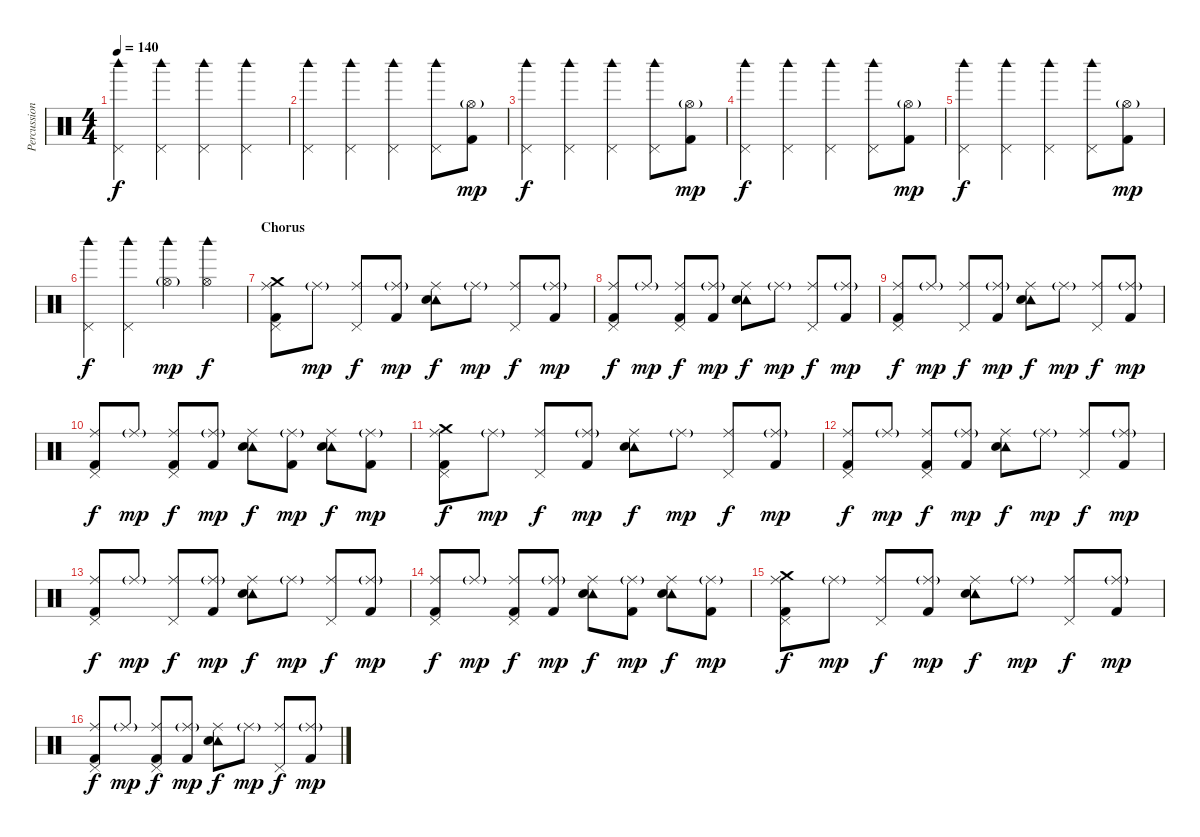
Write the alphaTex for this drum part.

\track ("Percussion" "Percussion") {instrument percussion}
\staff {score}
\articulation defaults
\ts (4 4)
\tempo 140
\clef neutral
\ks c
("Pedal Hi-Hat (hit)" "Woodblock high (hit)").4{dy f} ("Pedal Hi-Hat (hit)" "Woodblock high (hit)").4 ("Pedal Hi-Hat (hit)" "Woodblock high (hit)").4 ("Pedal Hi-Hat (hit)" "Woodblock high (hit)").4 |
("Pedal Hi-Hat (hit)" "Woodblock high (hit)").4 ("Pedal Hi-Hat (hit)" "Woodblock high (hit)").4 ("Pedal Hi-Hat (hit)" "Woodblock high (hit)").4 ("Pedal Hi-Hat (hit)" "Woodblock high (hit)").8 ("Hi-Hat (open)"{g} "Kick (hit) 2").8{dy mp} |
("Pedal Hi-Hat (hit)" "Woodblock high (hit)").4{dy f} ("Pedal Hi-Hat (hit)" "Woodblock high (hit)").4 ("Pedal Hi-Hat (hit)" "Woodblock high (hit)").4 ("Pedal Hi-Hat (hit)" "Woodblock high (hit)").8 ("Hi-Hat (open)"{g} "Kick (hit) 2").8{dy mp} |
("Pedal Hi-Hat (hit)" "Woodblock high (hit)").4{dy f} ("Pedal Hi-Hat (hit)" "Woodblock high (hit)").4 ("Pedal Hi-Hat (hit)" "Woodblock high (hit)").4 ("Pedal Hi-Hat (hit)" "Woodblock high (hit)").8 ("Hi-Hat (open)"{g} "Kick (hit) 2").8{dy mp} |
("Pedal Hi-Hat (hit)" "Woodblock high (hit)").4{dy f} ("Pedal Hi-Hat (hit)" "Woodblock high (hit)").4 ("Pedal Hi-Hat (hit)" "Woodblock high (hit)").4 ("Pedal Hi-Hat (hit)" "Woodblock high (hit)").8 ("Hi-Hat (open)"{g} "Kick (hit) 2").8{dy mp} |
("Pedal Hi-Hat (hit)" "Woodblock high (hit)").4{dy f} ("Pedal Hi-Hat (hit)" "Woodblock high (hit)").4 ("Hi-Hat (open)"{g} "Woodblock high (hit)").4{dy mp} ("Hi-Hat (open)" "Woodblock high (hit)").4{dy f} |
\section ("" "Chorus")
("Ride (middle)" "Pedal Hi-Hat (hit)" "Crash medium (hit)" "Kick (hit) 2").8 "Ride (middle)"{g}.8{dy mp} ("Ride (middle)" "Pedal Hi-Hat (hit)").8{dy f} ("Ride (middle)"{g} "Kick (hit) 2").8{dy mp} ("Ride (middle)" "Tambourine (hit)" "Electric Snare (hit)").8{dy f} "Ride (middle)"{g}.8{dy mp} ("Ride (middle)" "Pedal Hi-Hat (hit)").8{dy f} ("Ride (middle)"{g} "Kick (hit) 2").8{dy mp} |
("Ride (middle)" "Pedal Hi-Hat (hit)" "Kick (hit) 2").8{dy f} "Ride (middle)"{g}.8{dy mp} ("Ride (middle)" "Pedal Hi-Hat (hit)" "Kick (hit) 2").8{dy f} ("Ride (middle)"{g} "Kick (hit) 2").8{dy mp} ("Ride (middle)" "Tambourine (hit)" "Electric Snare (hit)").8{dy f} "Ride (middle)"{g}.8{dy mp} ("Ride (middle)" "Pedal Hi-Hat (hit)").8{dy f} ("Ride (middle)"{g} "Kick (hit) 2").8{dy mp} |
("Ride (middle)" "Pedal Hi-Hat (hit)" "Kick (hit) 2").8{dy f} "Ride (middle)"{g}.8{dy mp} ("Ride (middle)" "Pedal Hi-Hat (hit)").8{dy f} ("Ride (middle)"{g} "Kick (hit) 2").8{dy mp} ("Ride (middle)" "Tambourine (hit)" "Electric Snare (hit)").8{dy f} "Ride (middle)"{g}.8{dy mp} ("Ride (middle)" "Pedal Hi-Hat (hit)").8{dy f} ("Ride (middle)"{g} "Kick (hit) 2").8{dy mp} |
("Ride (middle)" "Pedal Hi-Hat (hit)" "Kick (hit) 2").8{dy f} "Ride (middle)"{g}.8{dy mp} ("Ride (middle)" "Pedal Hi-Hat (hit)" "Kick (hit) 2").8{dy f} ("Ride (middle)"{g} "Kick (hit) 2").8{dy mp} ("Ride (middle)" "Tambourine (hit)" "Electric Snare (hit)").8{dy f} ("Ride (middle)"{g} "Kick (hit) 2").8{dy mp} ("Ride (middle)" "Tambourine (hit)" "Electric Snare (hit)").8{dy f} ("Ride (middle)"{g} "Kick (hit) 2").8{dy mp} |
("Ride (middle)" "Pedal Hi-Hat (hit)" "Crash medium (hit)" "Kick (hit) 2").8{dy f} "Ride (middle)"{g}.8{dy mp} ("Ride (middle)" "Pedal Hi-Hat (hit)").8{dy f} ("Ride (middle)"{g} "Kick (hit) 2").8{dy mp} ("Ride (middle)" "Tambourine (hit)" "Electric Snare (hit)").8{dy f} "Ride (middle)"{g}.8{dy mp} ("Ride (middle)" "Pedal Hi-Hat (hit)").8{dy f} ("Ride (middle)"{g} "Kick (hit) 2").8{dy mp} |
("Ride (middle)" "Pedal Hi-Hat (hit)" "Kick (hit) 2").8{dy f} "Ride (middle)"{g}.8{dy mp} ("Ride (middle)" "Pedal Hi-Hat (hit)" "Kick (hit) 2").8{dy f} ("Ride (middle)"{g} "Kick (hit) 2").8{dy mp} ("Ride (middle)" "Tambourine (hit)" "Electric Snare (hit)").8{dy f} "Ride (middle)"{g}.8{dy mp} ("Ride (middle)" "Pedal Hi-Hat (hit)").8{dy f} ("Ride (middle)"{g} "Kick (hit) 2").8{dy mp} |
("Ride (middle)" "Pedal Hi-Hat (hit)" "Kick (hit) 2").8{dy f} "Ride (middle)"{g}.8{dy mp} ("Ride (middle)" "Pedal Hi-Hat (hit)").8{dy f} ("Ride (middle)"{g} "Kick (hit) 2").8{dy mp} ("Ride (middle)" "Tambourine (hit)" "Electric Snare (hit)").8{dy f} "Ride (middle)"{g}.8{dy mp} ("Ride (middle)" "Pedal Hi-Hat (hit)").8{dy f} ("Ride (middle)"{g} "Kick (hit) 2").8{dy mp} |
("Ride (middle)" "Pedal Hi-Hat (hit)" "Kick (hit) 2").8{dy f} "Ride (middle)"{g}.8{dy mp} ("Ride (middle)" "Pedal Hi-Hat (hit)" "Kick (hit) 2").8{dy f} ("Ride (middle)"{g} "Kick (hit) 2").8{dy mp} ("Ride (middle)" "Tambourine (hit)" "Electric Snare (hit)").8{dy f} ("Ride (middle)"{g} "Kick (hit) 2").8{dy mp} ("Ride (middle)" "Tambourine (hit)" "Electric Snare (hit)").8{dy f} ("Ride (middle)"{g} "Kick (hit) 2").8{dy mp} |
("Ride (middle)" "Pedal Hi-Hat (hit)" "Crash medium (hit)" "Kick (hit) 2").8{dy f} "Ride (middle)"{g}.8{dy mp} ("Ride (middle)" "Pedal Hi-Hat (hit)").8{dy f} ("Ride (middle)"{g} "Kick (hit) 2").8{dy mp} ("Ride (middle)" "Tambourine (hit)" "Electric Snare (hit)").8{dy f} "Ride (middle)"{g}.8{dy mp} ("Ride (middle)" "Pedal Hi-Hat (hit)").8{dy f} ("Ride (middle)"{g} "Kick (hit) 2").8{dy mp} |
("Ride (middle)" "Pedal Hi-Hat (hit)" "Kick (hit) 2").8{dy f} "Ride (middle)"{g}.8{dy mp} ("Ride (middle)" "Pedal Hi-Hat (hit)" "Kick (hit) 2").8{dy f} ("Ride (middle)"{g} "Kick (hit) 2").8{dy mp} ("Ride (middle)" "Tambourine (hit)" "Electric Snare (hit)").8{dy f} "Ride (middle)"{g}.8{dy mp} ("Ride (middle)" "Pedal Hi-Hat (hit)").8{dy f} ("Ride (middle)"{g} "Kick (hit) 2").8{dy mp}
